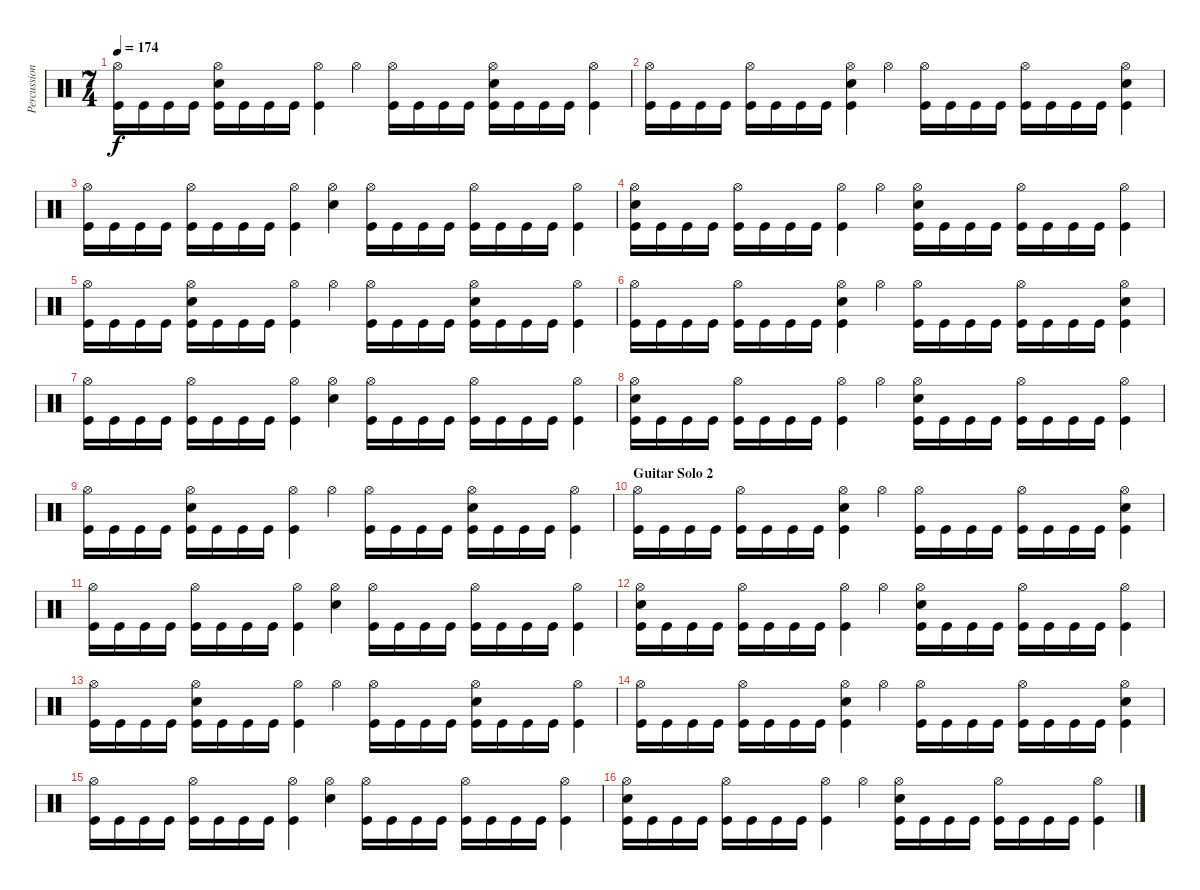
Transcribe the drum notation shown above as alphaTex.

\track ("Percussion" "Percussion") {instrument percussion}
\staff {score}
\articulation defaults
\ts (7 4)
\tempo 174
\clef neutral
\ks c
("Hi-Hat (open)" "Kick (hit)").16{dy f} "Kick (hit)".16 "Kick (hit)".16 "Kick (hit)".16 ("Hi-Hat (open)" "Electric Snare (hit)" "Kick (hit)").16 "Kick (hit)".16 "Kick (hit)".16 "Kick (hit)".16 ("Hi-Hat (open)" "Kick (hit)").4 "Hi-Hat (open)".4 ("Hi-Hat (open)" "Kick (hit)").16 "Kick (hit)".16 "Kick (hit)".16 "Kick (hit)".16 ("Hi-Hat (open)" "Electric Snare (hit)" "Kick (hit)").16 "Kick (hit)".16 "Kick (hit)".16 "Kick (hit)".16 ("Hi-Hat (open)" "Kick (hit)").4 |
("Hi-Hat (open)" "Kick (hit)").16 "Kick (hit)".16 "Kick (hit)".16 "Kick (hit)".16 ("Hi-Hat (open)" "Kick (hit)").16 "Kick (hit)".16 "Kick (hit)".16 "Kick (hit)".16 ("Hi-Hat (open)" "Electric Snare (hit)" "Kick (hit)").4 "Hi-Hat (open)".4 ("Hi-Hat (open)" "Kick (hit)").16 "Kick (hit)".16 "Kick (hit)".16 "Kick (hit)".16 ("Hi-Hat (open)" "Kick (hit)").16 "Kick (hit)".16 "Kick (hit)".16 "Kick (hit)".16 ("Hi-Hat (open)" "Electric Snare (hit)" "Kick (hit)").4 |
("Hi-Hat (open)" "Kick (hit)").16 "Kick (hit)".16 "Kick (hit)".16 "Kick (hit)".16 ("Hi-Hat (open)" "Kick (hit)").16 "Kick (hit)".16 "Kick (hit)".16 "Kick (hit)".16 ("Hi-Hat (open)" "Kick (hit)").4 ("Hi-Hat (open)" "Electric Snare (hit)").4 ("Hi-Hat (open)" "Kick (hit)").16 "Kick (hit)".16 "Kick (hit)".16 "Kick (hit)".16 ("Hi-Hat (open)" "Kick (hit)").16 "Kick (hit)".16 "Kick (hit)".16 "Kick (hit)".16 ("Hi-Hat (open)" "Kick (hit)").4 |
("Hi-Hat (open)" "Electric Snare (hit)" "Kick (hit)").16 "Kick (hit)".16 "Kick (hit)".16 "Kick (hit)".16 ("Hi-Hat (open)" "Kick (hit)").16 "Kick (hit)".16 "Kick (hit)".16 "Kick (hit)".16 ("Hi-Hat (open)" "Kick (hit)").4 "Hi-Hat (open)".4 ("Hi-Hat (open)" "Electric Snare (hit)" "Kick (hit)").16 "Kick (hit)".16 "Kick (hit)".16 "Kick (hit)".16 ("Hi-Hat (open)" "Kick (hit)").16 "Kick (hit)".16 "Kick (hit)".16 "Kick (hit)".16 ("Hi-Hat (open)" "Kick (hit)").4 |
("Hi-Hat (open)" "Kick (hit)").16 "Kick (hit)".16 "Kick (hit)".16 "Kick (hit)".16 ("Hi-Hat (open)" "Electric Snare (hit)" "Kick (hit)").16 "Kick (hit)".16 "Kick (hit)".16 "Kick (hit)".16 ("Hi-Hat (open)" "Kick (hit)").4 "Hi-Hat (open)".4 ("Hi-Hat (open)" "Kick (hit)").16 "Kick (hit)".16 "Kick (hit)".16 "Kick (hit)".16 ("Hi-Hat (open)" "Electric Snare (hit)" "Kick (hit)").16 "Kick (hit)".16 "Kick (hit)".16 "Kick (hit)".16 ("Hi-Hat (open)" "Kick (hit)").4 |
("Hi-Hat (open)" "Kick (hit)").16 "Kick (hit)".16 "Kick (hit)".16 "Kick (hit)".16 ("Hi-Hat (open)" "Kick (hit)").16 "Kick (hit)".16 "Kick (hit)".16 "Kick (hit)".16 ("Hi-Hat (open)" "Electric Snare (hit)" "Kick (hit)").4 "Hi-Hat (open)".4 ("Hi-Hat (open)" "Kick (hit)").16 "Kick (hit)".16 "Kick (hit)".16 "Kick (hit)".16 ("Hi-Hat (open)" "Kick (hit)").16 "Kick (hit)".16 "Kick (hit)".16 "Kick (hit)".16 ("Hi-Hat (open)" "Electric Snare (hit)" "Kick (hit)").4 |
("Hi-Hat (open)" "Kick (hit)").16 "Kick (hit)".16 "Kick (hit)".16 "Kick (hit)".16 ("Hi-Hat (open)" "Kick (hit)").16 "Kick (hit)".16 "Kick (hit)".16 "Kick (hit)".16 ("Hi-Hat (open)" "Kick (hit)").4 ("Hi-Hat (open)" "Electric Snare (hit)").4 ("Hi-Hat (open)" "Kick (hit)").16 "Kick (hit)".16 "Kick (hit)".16 "Kick (hit)".16 ("Hi-Hat (open)" "Kick (hit)").16 "Kick (hit)".16 "Kick (hit)".16 "Kick (hit)".16 ("Hi-Hat (open)" "Kick (hit)").4 |
("Hi-Hat (open)" "Electric Snare (hit)" "Kick (hit)").16 "Kick (hit)".16 "Kick (hit)".16 "Kick (hit)".16 ("Hi-Hat (open)" "Kick (hit)").16 "Kick (hit)".16 "Kick (hit)".16 "Kick (hit)".16 ("Hi-Hat (open)" "Kick (hit)").4 "Hi-Hat (open)".4 ("Hi-Hat (open)" "Electric Snare (hit)" "Kick (hit)").16 "Kick (hit)".16 "Kick (hit)".16 "Kick (hit)".16 ("Hi-Hat (open)" "Kick (hit)").16 "Kick (hit)".16 "Kick (hit)".16 "Kick (hit)".16 ("Hi-Hat (open)" "Kick (hit)").4 |
("Hi-Hat (open)" "Kick (hit)").16 "Kick (hit)".16 "Kick (hit)".16 "Kick (hit)".16 ("Hi-Hat (open)" "Electric Snare (hit)" "Kick (hit)").16 "Kick (hit)".16 "Kick (hit)".16 "Kick (hit)".16 ("Hi-Hat (open)" "Kick (hit)").4 "Hi-Hat (open)".4 ("Hi-Hat (open)" "Kick (hit)").16 "Kick (hit)".16 "Kick (hit)".16 "Kick (hit)".16 ("Hi-Hat (open)" "Electric Snare (hit)" "Kick (hit)").16 "Kick (hit)".16 "Kick (hit)".16 "Kick (hit)".16 ("Hi-Hat (open)" "Kick (hit)").4 |
\section ("" "Guitar Solo 2")
("Hi-Hat (open)" "Kick (hit)").16 "Kick (hit)".16 "Kick (hit)".16 "Kick (hit)".16 ("Hi-Hat (open)" "Kick (hit)").16 "Kick (hit)".16 "Kick (hit)".16 "Kick (hit)".16 ("Hi-Hat (open)" "Electric Snare (hit)" "Kick (hit)").4 "Hi-Hat (open)".4 ("Hi-Hat (open)" "Kick (hit)").16 "Kick (hit)".16 "Kick (hit)".16 "Kick (hit)".16 ("Hi-Hat (open)" "Kick (hit)").16 "Kick (hit)".16 "Kick (hit)".16 "Kick (hit)".16 ("Hi-Hat (open)" "Electric Snare (hit)" "Kick (hit)").4 |
("Hi-Hat (open)" "Kick (hit)").16 "Kick (hit)".16 "Kick (hit)".16 "Kick (hit)".16 ("Hi-Hat (open)" "Kick (hit)").16 "Kick (hit)".16 "Kick (hit)".16 "Kick (hit)".16 ("Hi-Hat (open)" "Kick (hit)").4 ("Hi-Hat (open)" "Electric Snare (hit)").4 ("Hi-Hat (open)" "Kick (hit)").16 "Kick (hit)".16 "Kick (hit)".16 "Kick (hit)".16 ("Hi-Hat (open)" "Kick (hit)").16 "Kick (hit)".16 "Kick (hit)".16 "Kick (hit)".16 ("Hi-Hat (open)" "Kick (hit)").4 |
("Hi-Hat (open)" "Electric Snare (hit)" "Kick (hit)").16 "Kick (hit)".16 "Kick (hit)".16 "Kick (hit)".16 ("Hi-Hat (open)" "Kick (hit)").16 "Kick (hit)".16 "Kick (hit)".16 "Kick (hit)".16 ("Hi-Hat (open)" "Kick (hit)").4 "Hi-Hat (open)".4 ("Hi-Hat (open)" "Electric Snare (hit)" "Kick (hit)").16 "Kick (hit)".16 "Kick (hit)".16 "Kick (hit)".16 ("Hi-Hat (open)" "Kick (hit)").16 "Kick (hit)".16 "Kick (hit)".16 "Kick (hit)".16 ("Hi-Hat (open)" "Kick (hit)").4 |
("Hi-Hat (open)" "Kick (hit)").16 "Kick (hit)".16 "Kick (hit)".16 "Kick (hit)".16 ("Hi-Hat (open)" "Electric Snare (hit)" "Kick (hit)").16 "Kick (hit)".16 "Kick (hit)".16 "Kick (hit)".16 ("Hi-Hat (open)" "Kick (hit)").4 "Hi-Hat (open)".4 ("Hi-Hat (open)" "Kick (hit)").16 "Kick (hit)".16 "Kick (hit)".16 "Kick (hit)".16 ("Hi-Hat (open)" "Electric Snare (hit)" "Kick (hit)").16 "Kick (hit)".16 "Kick (hit)".16 "Kick (hit)".16 ("Hi-Hat (open)" "Kick (hit)").4 |
("Hi-Hat (open)" "Kick (hit)").16 "Kick (hit)".16 "Kick (hit)".16 "Kick (hit)".16 ("Hi-Hat (open)" "Kick (hit)").16 "Kick (hit)".16 "Kick (hit)".16 "Kick (hit)".16 ("Hi-Hat (open)" "Electric Snare (hit)" "Kick (hit)").4 "Hi-Hat (open)".4 ("Hi-Hat (open)" "Kick (hit)").16 "Kick (hit)".16 "Kick (hit)".16 "Kick (hit)".16 ("Hi-Hat (open)" "Kick (hit)").16 "Kick (hit)".16 "Kick (hit)".16 "Kick (hit)".16 ("Hi-Hat (open)" "Electric Snare (hit)" "Kick (hit)").4 |
("Hi-Hat (open)" "Kick (hit)").16 "Kick (hit)".16 "Kick (hit)".16 "Kick (hit)".16 ("Hi-Hat (open)" "Kick (hit)").16 "Kick (hit)".16 "Kick (hit)".16 "Kick (hit)".16 ("Hi-Hat (open)" "Kick (hit)").4 ("Hi-Hat (open)" "Electric Snare (hit)").4 ("Hi-Hat (open)" "Kick (hit)").16 "Kick (hit)".16 "Kick (hit)".16 "Kick (hit)".16 ("Hi-Hat (open)" "Kick (hit)").16 "Kick (hit)".16 "Kick (hit)".16 "Kick (hit)".16 ("Hi-Hat (open)" "Kick (hit)").4 |
("Hi-Hat (open)" "Electric Snare (hit)" "Kick (hit)").16 "Kick (hit)".16 "Kick (hit)".16 "Kick (hit)".16 ("Hi-Hat (open)" "Kick (hit)").16 "Kick (hit)".16 "Kick (hit)".16 "Kick (hit)".16 ("Hi-Hat (open)" "Kick (hit)").4 "Hi-Hat (open)".4 ("Hi-Hat (open)" "Electric Snare (hit)" "Kick (hit)").16 "Kick (hit)".16 "Kick (hit)".16 "Kick (hit)".16 ("Hi-Hat (open)" "Kick (hit)").16 "Kick (hit)".16 "Kick (hit)".16 "Kick (hit)".16 ("Hi-Hat (open)" "Kick (hit)").4
